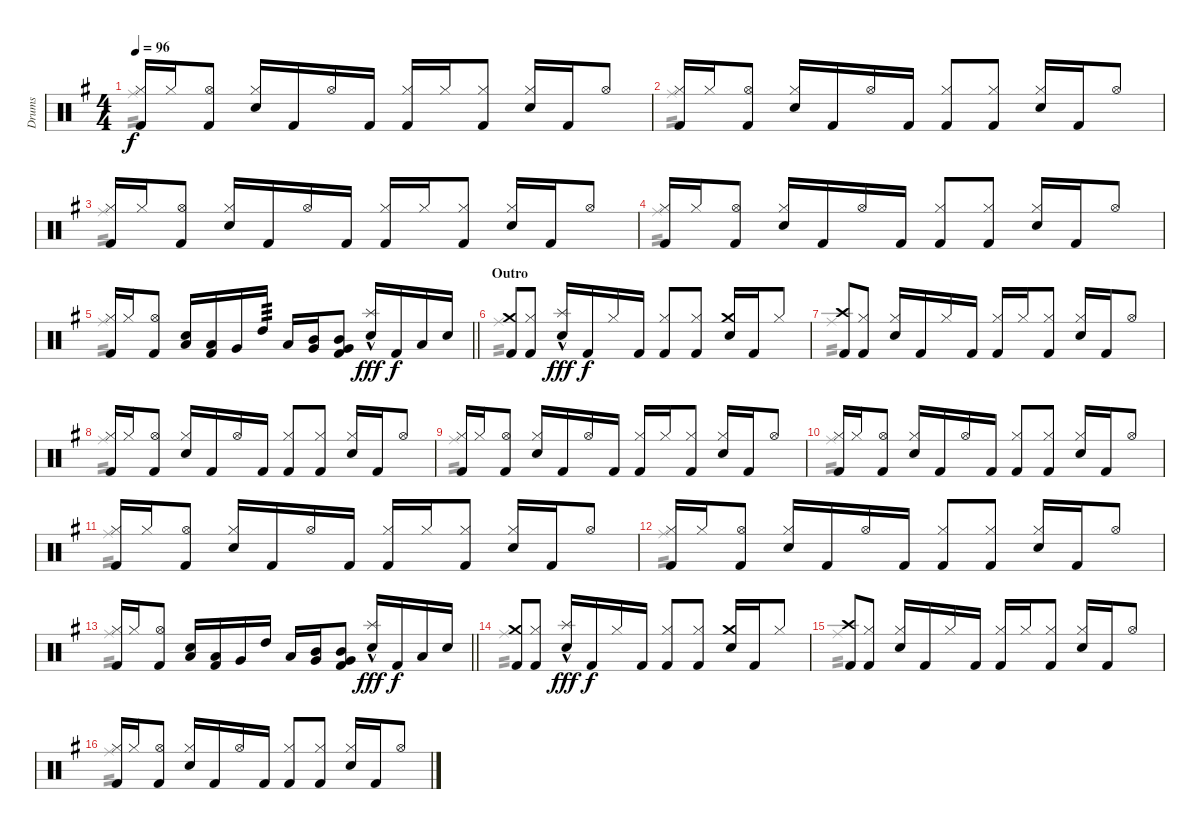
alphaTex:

\track ("Drums" "Drums") {instrument percussion}
\staff {score}
\articulation defaults
\voice
\ts (4 4)
\tempo 96
\clef neutral
\ks g
("Hi-Hat (closed)" "Kick (hit) 2").16{dy f} "Hi-Hat (closed)".16 ("Hi-Hat (open)" "Kick (hit) 2").8 ("Hi-Hat (closed)" "Electric Snare (hit)").16 "Kick (hit) 2".16 "Hi-Hat (open)".16 "Kick (hit) 2".16 ("Hi-Hat (closed)" "Kick (hit) 2").16 "Hi-Hat (closed)".16 ("Hi-Hat (closed)" "Kick (hit) 2").8 ("Hi-Hat (closed)" "Electric Snare (hit)").16 "Kick (hit) 2".16 "Hi-Hat (open)".8 |
("Hi-Hat (closed)" "Kick (hit) 2").16 "Hi-Hat (closed)".16 ("Hi-Hat (open)" "Kick (hit) 2").8 ("Hi-Hat (closed)" "Electric Snare (hit)").16 "Kick (hit) 2".16 "Hi-Hat (open)".16 "Kick (hit) 2".16 ("Hi-Hat (closed)" "Kick (hit) 2").8 ("Hi-Hat (closed)" "Kick (hit) 2").8 ("Hi-Hat (closed)" "Electric Snare (hit)").16 "Kick (hit) 2".16 "Hi-Hat (open)".8 |
("Hi-Hat (closed)" "Kick (hit) 2").16 "Hi-Hat (closed)".16 ("Hi-Hat (open)" "Kick (hit) 2").8 ("Hi-Hat (closed)" "Electric Snare (hit)").16 "Kick (hit) 2".16 "Hi-Hat (open)".16 "Kick (hit) 2".16 ("Hi-Hat (closed)" "Kick (hit) 2").16 "Hi-Hat (closed)".16 ("Hi-Hat (closed)" "Kick (hit) 2").8 ("Hi-Hat (closed)" "Electric Snare (hit)").16 "Kick (hit) 2".16 "Hi-Hat (open)".8 |
("Hi-Hat (closed)" "Kick (hit) 2").16 "Hi-Hat (closed)".16 ("Hi-Hat (open)" "Kick (hit) 2").8 ("Hi-Hat (closed)" "Electric Snare (hit)").16 "Kick (hit) 2".16 "Hi-Hat (open)".16 "Kick (hit) 2".16 ("Hi-Hat (closed)" "Kick (hit) 2").8 ("Hi-Hat (closed)" "Kick (hit) 2").8 ("Hi-Hat (closed)" "Electric Snare (hit)").16 "Kick (hit) 2".16 "Hi-Hat (open)".8 |
\barLineRight lightlight
("Hi-Hat (closed)" "Kick (hit) 2").16 "Hi-Hat (closed)".16 ("Hi-Hat (open)" "Kick (hit) 2").8 ("Electric Snare (hit)" "Low Tom (hit)").16 ("Low Tom (hit)" "Kick (hit) 2").16 "Very Low Tom (hit)".16 "High Tom (hit)".16{tp 3} "Low Floor Tom (hit)".16 ("Mid Tom (hit)" "Very Low Tom (hit)").16 ("Mid Tom (hit)" "Very Low Tom (hit)" "Kick (hit) 2").8 ("Splash (hit)"{hac} "Electric Snare (hit)").16{dy fff} "Kick (hit) 2".16{dy f} "Low Tom (hit)".16 "Electric Snare (hit)".16 |
\section ("" "Outro")
("Crash medium (hit)" "Kick (hit) 2").8 ("Hi-Hat (closed)" "Kick (hit) 2").8 ("Splash (hit)"{hac} "Electric Snare (hit)").16{dy fff} "Kick (hit) 2".16{dy f} "Hi-Hat (closed)".16 "Kick (hit) 2".16 ("Hi-Hat (closed)" "Kick (hit) 2").8 ("Hi-Hat (closed)" "Kick (hit) 2").8 ("Crash medium (hit)" "Electric Snare (hit)").16 "Kick (hit) 2".16 "Hi-Hat (closed)".8 |
("Crash high (hit)" "Kick (hit) 2").8 ("Hi-Hat (closed)" "Kick (hit) 2").8 ("Hi-Hat (closed)" "Electric Snare (hit)").16 "Kick (hit) 2".16 "Hi-Hat (closed)".16 "Kick (hit) 2".16 ("Hi-Hat (closed)" "Kick (hit) 2").16 "Hi-Hat (closed)".16 ("Hi-Hat (closed)" "Kick (hit) 2").8 ("Hi-Hat (closed)" "Electric Snare (hit)").16 "Kick (hit) 2".16 "Hi-Hat (open)".8 |
("Hi-Hat (closed)" "Kick (hit) 2").16 "Hi-Hat (closed)".16 ("Hi-Hat (open)" "Kick (hit) 2").8 ("Hi-Hat (closed)" "Electric Snare (hit)").16 "Kick (hit) 2".16 "Hi-Hat (open)".16 "Kick (hit) 2".16 ("Hi-Hat (closed)" "Kick (hit) 2").8 ("Hi-Hat (closed)" "Kick (hit) 2").8 ("Hi-Hat (closed)" "Electric Snare (hit)").16 "Kick (hit) 2".16 "Hi-Hat (open)".8 |
("Hi-Hat (closed)" "Kick (hit) 2").16 "Hi-Hat (closed)".16 ("Hi-Hat (open)" "Kick (hit) 2").8 ("Hi-Hat (closed)" "Electric Snare (hit)").16 "Kick (hit) 2".16 "Hi-Hat (open)".16 "Kick (hit) 2".16 ("Hi-Hat (closed)" "Kick (hit) 2").16 "Hi-Hat (closed)".16 ("Hi-Hat (closed)" "Kick (hit) 2").8 ("Hi-Hat (closed)" "Electric Snare (hit)").16 "Kick (hit) 2".16 "Hi-Hat (open)".8 |
("Hi-Hat (closed)" "Kick (hit) 2").16 "Hi-Hat (closed)".16 ("Hi-Hat (open)" "Kick (hit) 2").8 ("Hi-Hat (closed)" "Electric Snare (hit)").16 "Kick (hit) 2".16 "Hi-Hat (open)".16 "Kick (hit) 2".16 ("Hi-Hat (closed)" "Kick (hit) 2").8 ("Hi-Hat (closed)" "Kick (hit) 2").8 ("Hi-Hat (closed)" "Electric Snare (hit)").16 "Kick (hit) 2".16 "Hi-Hat (open)".8 |
("Hi-Hat (closed)" "Kick (hit) 2").16 "Hi-Hat (closed)".16 ("Hi-Hat (open)" "Kick (hit) 2").8 ("Hi-Hat (closed)" "Electric Snare (hit)").16 "Kick (hit) 2".16 "Hi-Hat (open)".16 "Kick (hit) 2".16 ("Hi-Hat (closed)" "Kick (hit) 2").16 "Hi-Hat (closed)".16 ("Hi-Hat (closed)" "Kick (hit) 2").8 ("Hi-Hat (closed)" "Electric Snare (hit)").16 "Kick (hit) 2".16 "Hi-Hat (open)".8 |
("Hi-Hat (closed)" "Kick (hit) 2").16 "Hi-Hat (closed)".16 ("Hi-Hat (open)" "Kick (hit) 2").8 ("Hi-Hat (closed)" "Electric Snare (hit)").16 "Kick (hit) 2".16 "Hi-Hat (open)".16 "Kick (hit) 2".16 ("Hi-Hat (closed)" "Kick (hit) 2").8 ("Hi-Hat (closed)" "Kick (hit) 2").8 ("Hi-Hat (closed)" "Electric Snare (hit)").16 "Kick (hit) 2".16 "Hi-Hat (open)".8 |
\barLineRight lightlight
("Hi-Hat (closed)" "Kick (hit) 2").16 "Hi-Hat (closed)".16 ("Hi-Hat (open)" "Kick (hit) 2").8 ("Electric Snare (hit)" "Low Tom (hit)").16 ("Low Tom (hit)" "Kick (hit) 2").16 "Very Low Tom (hit)".16 "High Tom (hit)".16 "Low Floor Tom (hit)".16 ("Mid Tom (hit)" "Very Low Tom (hit)").16 ("Mid Tom (hit)" "Very Low Tom (hit)" "Kick (hit) 2").8 ("Splash (hit)"{hac} "Electric Snare (hit)").16{dy fff} "Kick (hit) 2".16{dy f} "Low Tom (hit)".16 "Electric Snare (hit)".16 |
\section ("" "")
("Crash medium (hit)" "Kick (hit) 2").8 ("Hi-Hat (closed)" "Kick (hit) 2").8 ("Splash (hit)"{hac} "Electric Snare (hit)").16{dy fff} "Kick (hit) 2".16{dy f} "Hi-Hat (closed)".16 "Kick (hit) 2".16 ("Hi-Hat (closed)" "Kick (hit) 2").8 ("Hi-Hat (closed)" "Kick (hit) 2").8 ("Crash medium (hit)" "Electric Snare (hit)").16 "Kick (hit) 2".16 "Hi-Hat (closed)".8 |
("Crash high (hit)" "Kick (hit) 2").8 ("Hi-Hat (closed)" "Kick (hit) 2").8 ("Hi-Hat (closed)" "Electric Snare (hit)").16 "Kick (hit) 2".16 "Hi-Hat (closed)".16 "Kick (hit) 2".16 ("Hi-Hat (closed)" "Kick (hit) 2").16 "Hi-Hat (closed)".16 ("Hi-Hat (closed)" "Kick (hit) 2").8 ("Hi-Hat (closed)" "Electric Snare (hit)").16 "Kick (hit) 2".16 "Hi-Hat (open)".8 |
("Hi-Hat (closed)" "Kick (hit) 2").16 "Hi-Hat (closed)".16 ("Hi-Hat (open)" "Kick (hit) 2").8 ("Hi-Hat (closed)" "Electric Snare (hit)").16 "Kick (hit) 2".16 "Hi-Hat (open)".16 "Kick (hit) 2".16 ("Hi-Hat (closed)" "Kick (hit) 2").8 ("Hi-Hat (closed)" "Kick (hit) 2").8 ("Hi-Hat (closed)" "Electric Snare (hit)").16 "Kick (hit) 2".16 "Hi-Hat (open)".8
\voice
\clef neutral
\ottava regular
\simile none
\ks g "Ride (middle)".1{tp 2 dy f}
|
"Ride (middle)".1{tp 2} |
"Ride (middle)".1{tp 2} |
"Ride (middle)".1{tp 2} |
\barLineRight lightlight "Ride (middle)".1{tp 2}
|
"Ride (middle)".1{tp 2} |
"Ride (middle)".1{tp 2} |
"Ride (middle)".1{tp 2} |
"Ride (middle)".1{tp 2} |
"Ride (middle)".1{tp 2} |
"Ride (middle)".1{tp 2} |
"Ride (middle)".1{tp 2} |
\barLineRight lightlight "Ride (middle)".1{tp 2}
|
"Ride (middle)".1{tp 2} |
"Ride (middle)".1{tp 2} |
"Ride (middle)".1{tp 2}
